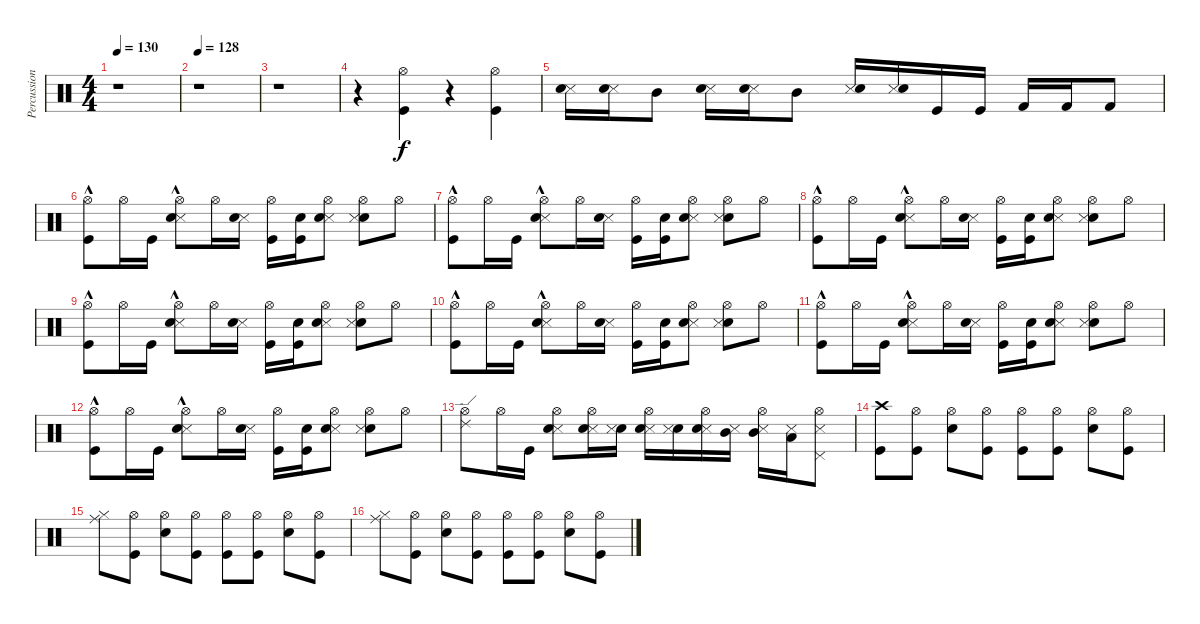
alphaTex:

\track ("Percussion" "Percussion") {instrument percussion}
\staff {score}
\articulation defaults
\ts (4 4)
\tempo 130
\clef neutral
\ks c
r.1{dy f} |
\tempo 128
r.1 |
r.1 |
r.4 ("Kick (hit)" "Hi-Hat (open)").4 r.4 ("Kick (hit)" "Hi-Hat (open)").4 |
("Snare (side stick) 3" "Electric Snare (hit)").16 ("Snare (side stick) 3" "Electric Snare (hit)").16 "Mid Tom (hit)".8 ("Snare (side stick) 3" "Electric Snare (hit)").16 ("Snare (side stick) 3" "Electric Snare (hit)").16 "Mid Tom (hit)".8 ("Snare (side stick) 3" "Electric Snare (hit)").16 ("Snare (side stick) 3" "Electric Snare (hit)").16 "Kick (hit)".16 "Kick (hit)".16 "Kick (hit) 2".16 "Kick (hit) 2".16 "Kick (hit) 2".8 |
("Hi-Hat (open)" "Kick (hit)"{hac}).8 "Hi-Hat (open)".16 "Kick (hit)".16 ("Snare (side stick) 3"{hac} "Electric Snare (hit)"{hac} "Hi-Hat (open)").8 "Hi-Hat (open)".16 ("Snare (side stick) 3" "Electric Snare (hit)").16 ("Kick (hit)" "Hi-Hat (open)").16 ("Kick (hit)" "Electric Snare (hit)").16 ("Snare (side stick) 3" "Electric Snare (hit)" "Hi-Hat (open)").8 ("Electric Snare (hit)" "Snare (side stick) 3" "Hi-Hat (open)").8 "Hi-Hat (open)".8 |
("Hi-Hat (open)" "Kick (hit)"{hac}).8 "Hi-Hat (open)".16 "Kick (hit)".16 ("Snare (side stick) 3"{hac} "Electric Snare (hit)"{hac} "Hi-Hat (open)").8 "Hi-Hat (open)".16 ("Snare (side stick) 3" "Electric Snare (hit)").16 ("Kick (hit)" "Hi-Hat (open)").16 ("Kick (hit)" "Electric Snare (hit)").16 ("Snare (side stick) 3" "Electric Snare (hit)" "Hi-Hat (open)").8 ("Electric Snare (hit)" "Snare (side stick) 3" "Hi-Hat (open)").8 "Hi-Hat (open)".8 |
("Hi-Hat (open)" "Kick (hit)"{hac}).8 "Hi-Hat (open)".16 "Kick (hit)".16 ("Snare (side stick) 3"{hac} "Electric Snare (hit)"{hac} "Hi-Hat (open)").8 "Hi-Hat (open)".16 ("Snare (side stick) 3" "Electric Snare (hit)").16 ("Kick (hit)" "Hi-Hat (open)").16 ("Kick (hit)" "Electric Snare (hit)").16 ("Snare (side stick) 3" "Electric Snare (hit)" "Hi-Hat (open)").8 ("Electric Snare (hit)" "Snare (side stick) 3" "Hi-Hat (open)").8 "Hi-Hat (open)".8 |
("Hi-Hat (open)" "Kick (hit)"{hac}).8 "Hi-Hat (open)".16 "Kick (hit)".16 ("Snare (side stick) 3"{hac} "Electric Snare (hit)"{hac} "Hi-Hat (open)").8 "Hi-Hat (open)".16 ("Snare (side stick) 3" "Electric Snare (hit)").16 ("Kick (hit)" "Hi-Hat (open)").16 ("Kick (hit)" "Electric Snare (hit)").16 ("Snare (side stick) 3" "Electric Snare (hit)" "Hi-Hat (open)").8 ("Electric Snare (hit)" "Snare (side stick) 3" "Hi-Hat (open)").8 "Hi-Hat (open)".8 |
("Hi-Hat (open)" "Kick (hit)"{hac}).8 "Hi-Hat (open)".16 "Kick (hit)".16 ("Snare (side stick) 3"{hac} "Electric Snare (hit)"{hac} "Hi-Hat (open)").8 "Hi-Hat (open)".16 ("Snare (side stick) 3" "Electric Snare (hit)").16 ("Kick (hit)" "Hi-Hat (open)").16 ("Kick (hit)" "Electric Snare (hit)").16 ("Snare (side stick) 3" "Electric Snare (hit)" "Hi-Hat (open)").8 ("Electric Snare (hit)" "Snare (side stick) 3" "Hi-Hat (open)").8 "Hi-Hat (open)".8 |
("Hi-Hat (open)" "Kick (hit)"{hac}).8 "Hi-Hat (open)".16 "Kick (hit)".16 ("Snare (side stick) 3"{hac} "Electric Snare (hit)"{hac} "Hi-Hat (open)").8 "Hi-Hat (open)".16 ("Snare (side stick) 3" "Electric Snare (hit)").16 ("Kick (hit)" "Hi-Hat (open)").16 ("Kick (hit)" "Electric Snare (hit)").16 ("Snare (side stick) 3" "Electric Snare (hit)" "Hi-Hat (open)").8 ("Electric Snare (hit)" "Snare (side stick) 3" "Hi-Hat (open)").8 "Hi-Hat (open)".8 |
("Hi-Hat (open)" "Kick (hit)"{hac}).8 "Hi-Hat (open)".16 "Kick (hit)".16 ("Snare (side stick) 3"{hac} "Electric Snare (hit)"{hac} "Hi-Hat (open)").8 "Hi-Hat (open)".16 ("Snare (side stick) 3" "Electric Snare (hit)").16 ("Kick (hit)" "Hi-Hat (open)").16 ("Kick (hit)" "Electric Snare (hit)").16 ("Snare (side stick) 3" "Electric Snare (hit)" "Hi-Hat (open)").8 ("Electric Snare (hit)" "Snare (side stick) 3" "Hi-Hat (open)").8 "Hi-Hat (open)".8 |
("Ride (edge) 2" "Hi-Hat (open)").8 "Hi-Hat (open)".16 "Kick (hit)".16 ("Snare (side stick) 3" "Electric Snare (hit)" "Hi-Hat (open)").8 ("Snare (side stick) 3" "Electric Snare (hit)" "Hi-Hat (open)").16 ("Electric Snare (hit)" "Snare (side stick) 3").16 ("Snare (side stick) 3" "Electric Snare (hit)" "Hi-Hat (open)").16 ("Electric Snare (hit)" "Snare (side stick) 3").16 ("Snare (side stick) 3" "Electric Snare (hit)" "Hi-Hat (open)").16 ("Mid Tom (hit)" "Snare (side stick) 3").16 ("Mid Tom (hit)" "Snare (side stick) 3" "Hi-Hat (open)").16 ("Low Tom (hit)" "Snare (side stick) 3").16 ("Pedal Hi-Hat (hit)" "Snare (side stick) 3" "Hi-Hat (open)").8 |
("Crash high (hit)" "Kick (hit)").8 ("Kick (hit)" "Hi-Hat (open)").8 ("Electric Snare (hit)" "Hi-Hat (open)").8 ("Kick (hit)" "Hi-Hat (open)").8 ("Kick (hit)" "Hi-Hat (open)").8 ("Kick (hit)" "Hi-Hat (open)").8 ("Electric Snare (hit)" "Hi-Hat (open)").8 ("Kick (hit)" "Hi-Hat (open)").8 |
("Hi-Hat (closed)" "Ride (middle)").8 ("Kick (hit)" "Hi-Hat (open)").8 ("Electric Snare (hit)" "Hi-Hat (open)").8 ("Kick (hit)" "Hi-Hat (open)").8 ("Kick (hit)" "Hi-Hat (open)").8 ("Kick (hit)" "Hi-Hat (open)").8 ("Electric Snare (hit)" "Hi-Hat (open)").8 ("Kick (hit)" "Hi-Hat (open)").8 |
("Hi-Hat (closed)" "Ride (middle)").8 ("Kick (hit)" "Hi-Hat (open)").8 ("Electric Snare (hit)" "Hi-Hat (open)").8 ("Kick (hit)" "Hi-Hat (open)").8 ("Kick (hit)" "Hi-Hat (open)").8 ("Kick (hit)" "Hi-Hat (open)").8 ("Electric Snare (hit)" "Hi-Hat (open)").8 ("Kick (hit)" "Hi-Hat (open)").8
